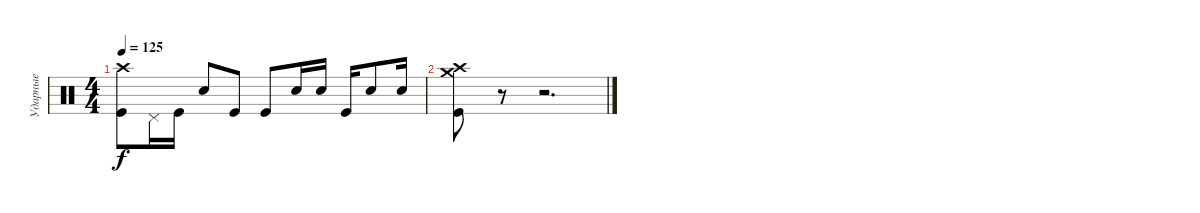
\track ("Ударные" "Ударные") {instrument percussion}
\staff {score}
\articulation defaults
\ts (4 4)
\tempo 125
\clef neutral
\ks c
("Kick (hit)" "Crash high (hit)").8{dy f} "Pedal Hi-Hat (hit)".16 "Kick (hit)".16 "Snare (hit) 2".8 "Kick (hit)".8 "Kick (hit)".8 "Snare (hit) 2".16 "Snare (hit) 2".16 "Kick (hit)".16 "Snare (hit) 2".8 "Snare (hit) 2".16 |
("Kick (hit)" "Crash medium (hit)" "Crash high (hit)").8 r.8 r.2{d}
